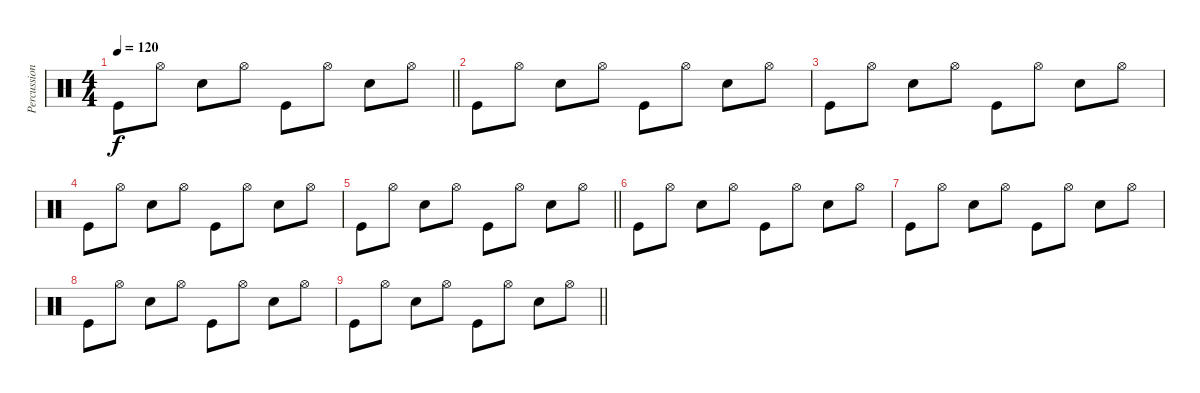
\track ("Percussion" "Percussion") {instrument percussion}
\staff {score}
\articulation defaults
\ts (4 4)
\tempo 120
\clef neutral
\barLineRight lightlight
\ks c "Kick (hit)".8{dy f} "Hi-Hat (open)".8 "Snare (hit) 2".8 "Hi-Hat (open)".8 "Kick (hit)".8 "Hi-Hat (open)".8 "Snare (hit) 2".8 "Hi-Hat (open)".8
|
"Kick (hit)".8 "Hi-Hat (open)".8 "Snare (hit) 2".8 "Hi-Hat (open)".8 "Kick (hit)".8 "Hi-Hat (open)".8 "Snare (hit) 2".8 "Hi-Hat (open)".8 |
"Kick (hit)".8 "Hi-Hat (open)".8 "Snare (hit) 2".8 "Hi-Hat (open)".8 "Kick (hit)".8 "Hi-Hat (open)".8 "Snare (hit) 2".8 "Hi-Hat (open)".8 |
"Kick (hit)".8 "Hi-Hat (open)".8 "Snare (hit) 2".8 "Hi-Hat (open)".8 "Kick (hit)".8 "Hi-Hat (open)".8 "Snare (hit) 2".8 "Hi-Hat (open)".8 |
\barLineRight lightlight "Kick (hit)".8 "Hi-Hat (open)".8 "Snare (hit) 2".8 "Hi-Hat (open)".8 "Kick (hit)".8 "Hi-Hat (open)".8 "Snare (hit) 2".8 "Hi-Hat (open)".8
|
"Kick (hit)".8 "Hi-Hat (open)".8 "Snare (hit) 2".8 "Hi-Hat (open)".8 "Kick (hit)".8 "Hi-Hat (open)".8 "Snare (hit) 2".8 "Hi-Hat (open)".8 |
"Kick (hit)".8 "Hi-Hat (open)".8 "Snare (hit) 2".8 "Hi-Hat (open)".8 "Kick (hit)".8 "Hi-Hat (open)".8 "Snare (hit) 2".8 "Hi-Hat (open)".8 |
"Kick (hit)".8 "Hi-Hat (open)".8 "Snare (hit) 2".8 "Hi-Hat (open)".8 "Kick (hit)".8 "Hi-Hat (open)".8 "Snare (hit) 2".8 "Hi-Hat (open)".8 |
\barLineRight lightlight "Kick (hit)".8 "Hi-Hat (open)".8 "Snare (hit) 2".8 "Hi-Hat (open)".8 "Kick (hit)".8 "Hi-Hat (open)".8 "Snare (hit) 2".8 "Hi-Hat (open)".8
